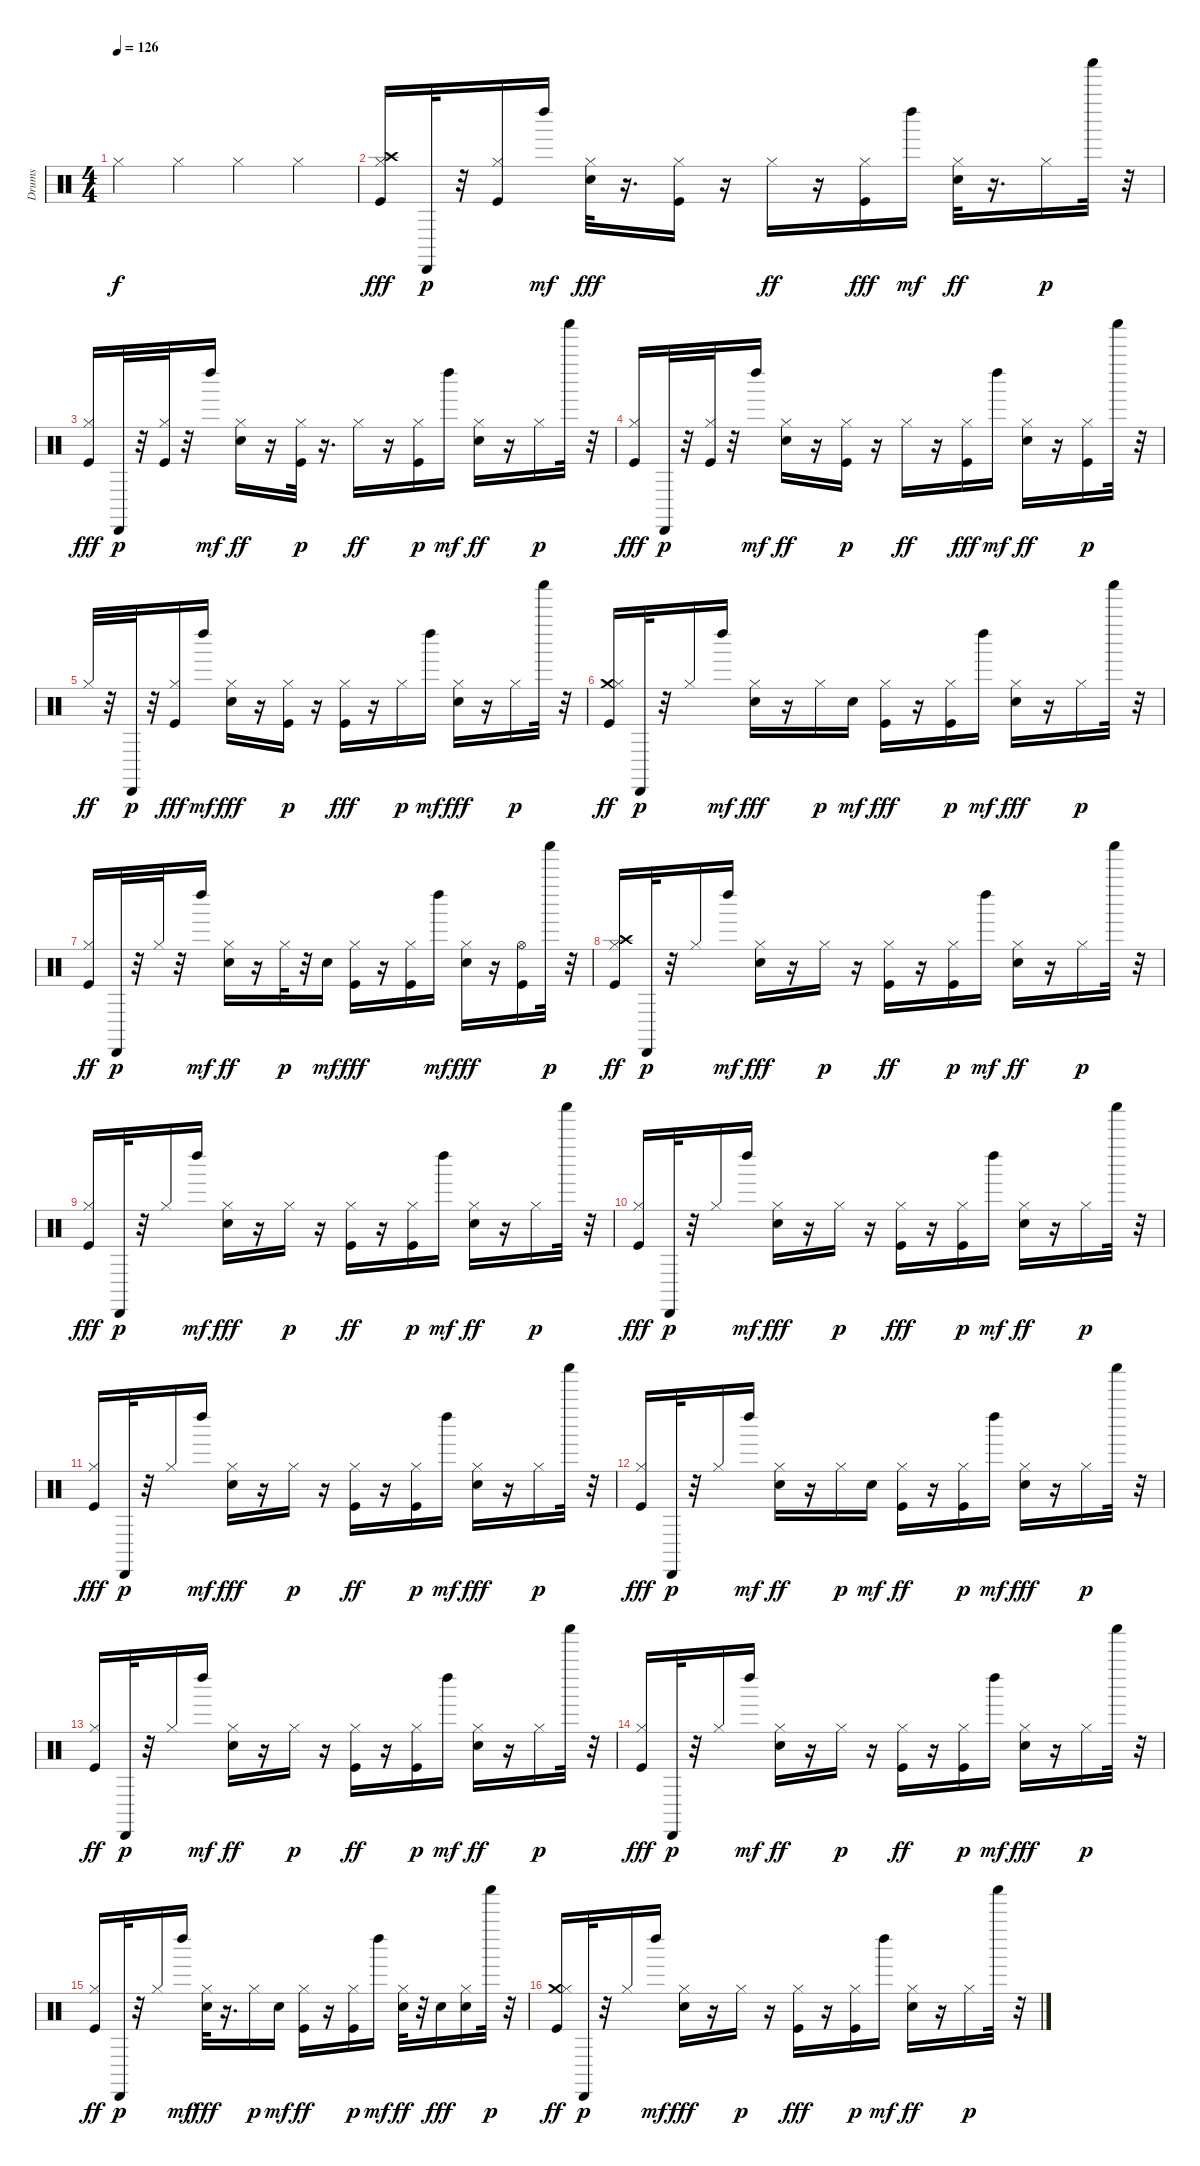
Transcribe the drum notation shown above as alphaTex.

\track ("Drums" "Drums") {instrument percussion}
\staff {score}
\articulation defaults
\ts (4 4)
\tempo 126
\clef neutral
\ks c "Hi-Hat (closed)".4{dy f} "Hi-Hat (closed)".4 "Hi-Hat (closed)".4 "Hi-Hat (closed)".4
|
("Crash high (hit)" "Hi-Hat (closed)" "Kick (hit)").16{dy fff} "Cabasa (hit)".32{dy p} r.32 ("Kick (hit)" "Hi-Hat (closed)").16 "Left Maraca (hit)".16{dy mf} ("Hi-Hat (closed)" "Electric Snare (hit)").32{dy fff} r.16{d} ("Hi-Hat (closed)" "Kick (hit)").16 r.16 "Hi-Hat (closed)".16{dy ff} r.16 ("Hi-Hat (closed)" "Kick (hit)").16{dy fff} "Left Maraca (hit)".16{dy mf} ("Electric Snare (hit)" "Hi-Hat (closed)").32{dy ff} r.16{d} "Hi-Hat (closed)".16{dy p} "Shaker (hit)".32 r.32 |
("Hi-Hat (closed)" "Kick (hit)").16{dy fff} "Cabasa (hit)".32{dy p} r.32 ("Kick (hit)" "Hi-Hat (closed)").32 r.32 "Left Maraca (hit)".16{dy mf} ("Electric Snare (hit)" "Hi-Hat (closed)").16{dy ff} r.16 ("Kick (hit)" "Hi-Hat (closed)").32{dy p} r.16{d} "Hi-Hat (closed)".16{dy ff} r.16 ("Kick (hit)" "Hi-Hat (closed)").16{dy p} "Left Maraca (hit)".16{dy mf} ("Electric Snare (hit)" "Hi-Hat (closed)").16{dy ff} r.16 "Hi-Hat (closed)".16{dy p} "Shaker (hit)".32 r.32 |
("Hi-Hat (closed)" "Kick (hit)").16{dy fff} "Cabasa (hit)".32{dy p} r.32 ("Kick (hit)" "Hi-Hat (closed)").32 r.32 "Left Maraca (hit)".16{dy mf} ("Electric Snare (hit)" "Hi-Hat (closed)").16{dy ff} r.16 ("Kick (hit)" "Hi-Hat (closed)").16{dy p} r.16 "Hi-Hat (closed)".16{dy ff} r.16 ("Hi-Hat (closed)" "Kick (hit)").16{dy fff} "Left Maraca (hit)".16{dy mf} ("Electric Snare (hit)" "Hi-Hat (closed)").16{dy ff} r.16 ("Kick (hit)" "Hi-Hat (closed)").16{dy p} "Shaker (hit)".32 r.32 |
"Hi-Hat (closed)".32{dy ff} r.32 "Cabasa (hit)".32{dy p} r.32 ("Hi-Hat (closed)" "Kick (hit)").16{dy fff} "Left Maraca (hit)".16{dy mf} ("Hi-Hat (closed)" "Electric Snare (hit)").16{dy fff} r.16 ("Kick (hit)" "Hi-Hat (closed)").16{dy p} r.16 ("Hi-Hat (closed)" "Kick (hit)").16{dy fff} r.16 "Hi-Hat (closed)".16{dy p} "Left Maraca (hit)".16{dy mf} ("Hi-Hat (closed)" "Electric Snare (hit)").16{dy fff} r.16 "Hi-Hat (closed)".16{dy p} "Shaker (hit)".32 r.32 |
("Crash medium (hit)" "Kick (hit)" "Hi-Hat (closed)").16{dy ff} "Cabasa (hit)".32{dy p} r.32 "Hi-Hat (closed)".16 "Left Maraca (hit)".16{dy mf} ("Hi-Hat (closed)" "Electric Snare (hit)").16{dy fff} r.16 "Hi-Hat (closed)".16{dy p} "Electric Snare (hit)".16{dy mf} ("Hi-Hat (closed)" "Kick (hit)").16{dy fff} r.16 ("Kick (hit)" "Hi-Hat (closed)").16{dy p} "Left Maraca (hit)".16{dy mf} ("Hi-Hat (closed)" "Electric Snare (hit)").16{dy fff} r.16 "Hi-Hat (closed)".16{dy p} "Shaker (hit)".32 r.32 |
("Kick (hit)" "Hi-Hat (closed)").16{dy ff} "Cabasa (hit)".32{dy p} r.32 "Hi-Hat (closed)".32 r.32 "Left Maraca (hit)".16{dy mf} ("Electric Snare (hit)" "Hi-Hat (closed)").16{dy ff} r.16 "Hi-Hat (closed)".32{dy p} r.32 "Electric Snare (hit)".16{dy mf} ("Hi-Hat (closed)" "Kick (hit)").16{dy fff} r.16 ("Hi-Hat (closed)" "Kick (hit)").16 "Left Maraca (hit)".16{dy mf} ("Hi-Hat (closed)" "Electric Snare (hit)").16{dy fff} r.16 ("Hi-Hat (open)" "Kick (hit)").16 "Shaker (hit)".32{dy p} r.32 |
("Crash high (hit)" "Kick (hit)" "Hi-Hat (closed)").16{dy ff} "Cabasa (hit)".32{dy p} r.32 "Hi-Hat (closed)".16 "Left Maraca (hit)".16{dy mf} ("Hi-Hat (closed)" "Electric Snare (hit)").16{dy fff} r.16 "Hi-Hat (closed)".16{dy p} r.16 ("Kick (hit)" "Hi-Hat (closed)").16{dy ff} r.16 ("Kick (hit)" "Hi-Hat (closed)").16{dy p} "Left Maraca (hit)".16{dy mf} ("Electric Snare (hit)" "Hi-Hat (closed)").16{dy ff} r.16 "Hi-Hat (closed)".16{dy p} "Shaker (hit)".32 r.32 |
("Hi-Hat (closed)" "Kick (hit)").16{dy fff} "Cabasa (hit)".32{dy p} r.32 "Hi-Hat (closed)".16 "Left Maraca (hit)".16{dy mf} ("Hi-Hat (closed)" "Electric Snare (hit)").16{dy fff} r.16 "Hi-Hat (closed)".16{dy p} r.16 ("Kick (hit)" "Hi-Hat (closed)").16{dy ff} r.16 ("Kick (hit)" "Hi-Hat (closed)").16{dy p} "Left Maraca (hit)".16{dy mf} ("Electric Snare (hit)" "Hi-Hat (closed)").16{dy ff} r.16 "Hi-Hat (closed)".16{dy p} "Shaker (hit)".32 r.32 |
("Hi-Hat (closed)" "Kick (hit)").16{dy fff} "Cabasa (hit)".32{dy p} r.32 "Hi-Hat (closed)".16 "Left Maraca (hit)".16{dy mf} ("Hi-Hat (closed)" "Electric Snare (hit)").16{dy fff} r.16 "Hi-Hat (closed)".16{dy p} r.16 ("Hi-Hat (closed)" "Kick (hit)").16{dy fff} r.16 ("Kick (hit)" "Hi-Hat (closed)").16{dy p} "Left Maraca (hit)".16{dy mf} ("Electric Snare (hit)" "Hi-Hat (closed)").16{dy ff} r.16 "Hi-Hat (closed)".16{dy p} "Shaker (hit)".32 r.32 |
("Hi-Hat (closed)" "Kick (hit)").16{dy fff} "Cabasa (hit)".32{dy p} r.32 "Hi-Hat (closed)".16 "Left Maraca (hit)".16{dy mf} ("Hi-Hat (closed)" "Electric Snare (hit)").16{dy fff} r.16 "Hi-Hat (closed)".16{dy p} r.16 ("Kick (hit)" "Hi-Hat (closed)").16{dy ff} r.16 ("Kick (hit)" "Hi-Hat (closed)").16{dy p} "Left Maraca (hit)".16{dy mf} ("Hi-Hat (closed)" "Electric Snare (hit)").16{dy fff} r.16 "Hi-Hat (closed)".16{dy p} "Shaker (hit)".32 r.32 |
("Hi-Hat (closed)" "Kick (hit)").16{dy fff} "Cabasa (hit)".32{dy p} r.32 "Hi-Hat (closed)".16 "Left Maraca (hit)".16{dy mf} ("Electric Snare (hit)" "Hi-Hat (closed)").16{dy ff} r.16 "Hi-Hat (closed)".16{dy p} "Electric Snare (hit)".16{dy mf} ("Kick (hit)" "Hi-Hat (closed)").16{dy ff} r.16 ("Kick (hit)" "Hi-Hat (closed)").16{dy p} "Left Maraca (hit)".16{dy mf} ("Hi-Hat (closed)" "Electric Snare (hit)").16{dy fff} r.16 "Hi-Hat (closed)".16{dy p} "Shaker (hit)".32 r.32 |
("Kick (hit)" "Hi-Hat (closed)").16{dy ff} "Cabasa (hit)".32{dy p} r.32 "Hi-Hat (closed)".16 "Left Maraca (hit)".16{dy mf} ("Electric Snare (hit)" "Hi-Hat (closed)").16{dy ff} r.16 "Hi-Hat (closed)".16{dy p} r.16 ("Kick (hit)" "Hi-Hat (closed)").16{dy ff} r.16 ("Kick (hit)" "Hi-Hat (closed)").16{dy p} "Left Maraca (hit)".16{dy mf} ("Electric Snare (hit)" "Hi-Hat (closed)").16{dy ff} r.16 "Hi-Hat (closed)".16{dy p} "Shaker (hit)".32 r.32 |
("Hi-Hat (closed)" "Kick (hit)").16{dy fff} "Cabasa (hit)".32{dy p} r.32 "Hi-Hat (closed)".16 "Left Maraca (hit)".16{dy mf} ("Electric Snare (hit)" "Hi-Hat (closed)").16{dy ff} r.16 "Hi-Hat (closed)".16{dy p} r.16 ("Kick (hit)" "Hi-Hat (closed)").16{dy ff} r.16 ("Kick (hit)" "Hi-Hat (closed)").16{dy p} "Left Maraca (hit)".16{dy mf} ("Hi-Hat (closed)" "Electric Snare (hit)").16{dy fff} r.16 "Hi-Hat (closed)".16{dy p} "Shaker (hit)".32 r.32 |
("Kick (hit)" "Hi-Hat (closed)").16{dy ff} "Cabasa (hit)".32{dy p} r.32 "Hi-Hat (closed)".16 "Left Maraca (hit)".16{dy mf} ("Hi-Hat (closed)" "Electric Snare (hit)").32{dy fff} r.16{d} "Hi-Hat (closed)".16{dy p} "Electric Snare (hit)".16{dy mf} ("Kick (hit)" "Hi-Hat (closed)").16{dy ff} r.16 ("Kick (hit)" "Hi-Hat (closed)").16{dy p} "Left Maraca (hit)".16{dy mf} ("Electric Snare (hit)" "Hi-Hat (closed)").32{dy ff} r.32 "Electric Snare (hit)".16{dy fff} ("Hi-Hat (closed)" "Electric Snare (hit)").16 "Shaker (hit)".32{dy p} r.32 |
("Crash medium (hit)" "Kick (hit)" "Hi-Hat (closed)").16{dy ff} "Cabasa (hit)".32{dy p} r.32 "Hi-Hat (closed)".16 "Left Maraca (hit)".16{dy mf} ("Hi-Hat (closed)" "Electric Snare (hit)").16{dy fff} r.16 "Hi-Hat (closed)".16{dy p} r.16 ("Hi-Hat (closed)" "Kick (hit)").16{dy fff} r.16 ("Kick (hit)" "Hi-Hat (closed)").16{dy p} "Left Maraca (hit)".16{dy mf} ("Electric Snare (hit)" "Hi-Hat (closed)").16{dy ff} r.16 "Hi-Hat (closed)".16{dy p} "Shaker (hit)".32 r.32
